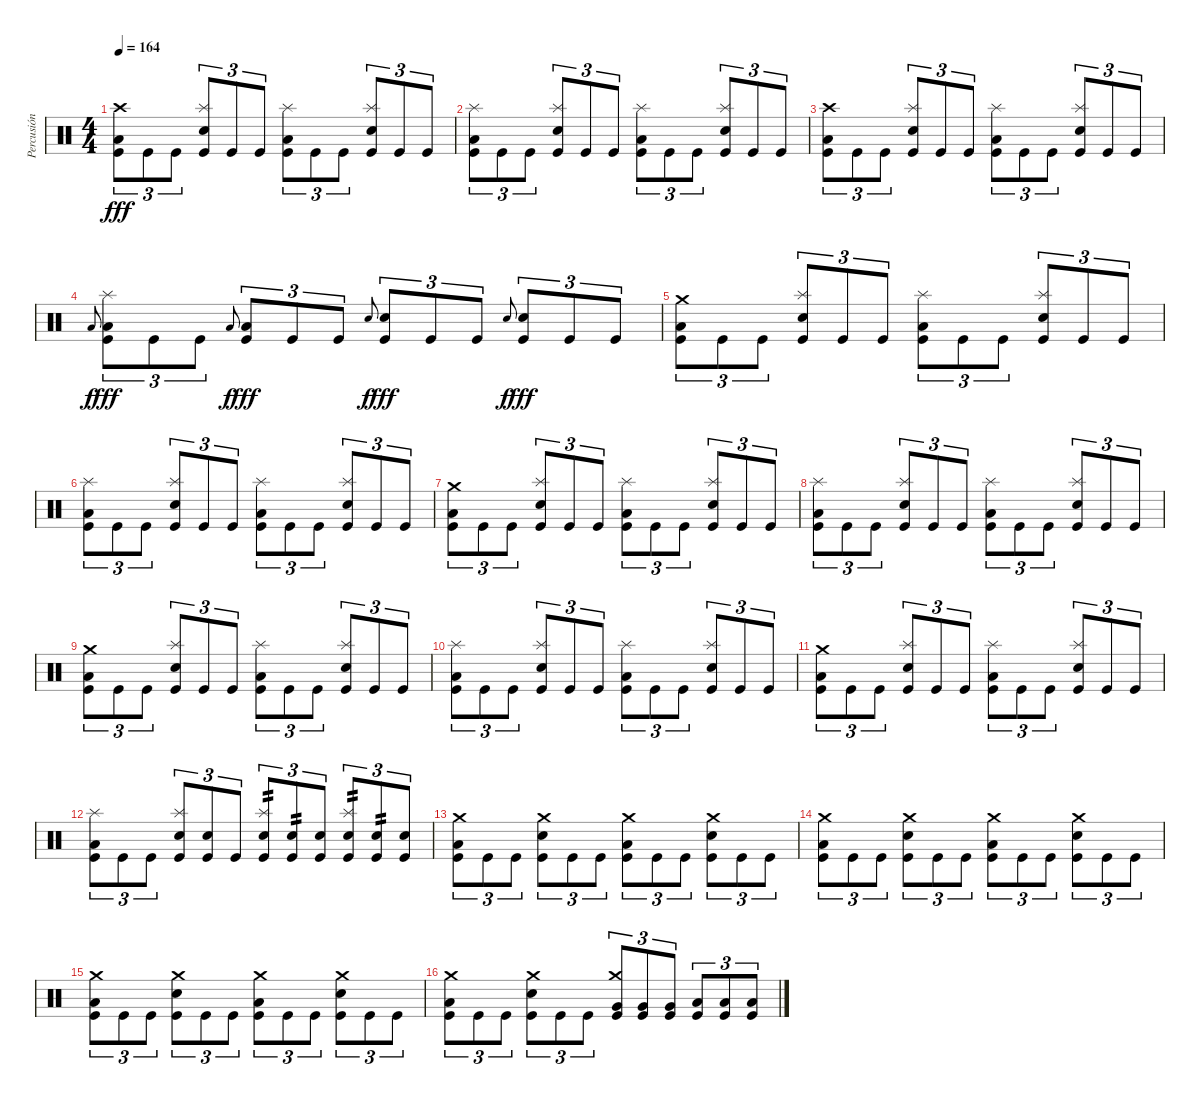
\track ("Percusión" "Percusión") {instrument percussion}
\staff {score}
\articulation defaults
\ts (4 4)
\tempo 164
\clef neutral
\ks c
("Crash high (hit)" "Low Floor Tom (hit)" "Kick (hit)").8{tu (3 2) dy fff} "Kick (hit)".8{tu (3 2)} "Kick (hit)".8{tu (3 2)} ("Splash (hit)" "Snare (hit) 2" "Kick (hit)").8{tu (3 2)} "Kick (hit)".8{tu (3 2)} "Kick (hit)".8{tu (3 2)} ("Splash (hit)" "Low Floor Tom (hit)" "Kick (hit)").8{tu (3 2)} "Kick (hit)".8{tu (3 2)} "Kick (hit)".8{tu (3 2)} ("Splash (hit)" "Snare (hit) 2" "Kick (hit)").8{tu (3 2)} "Kick (hit)".8{tu (3 2)} "Kick (hit)".8{tu (3 2)} |
("Splash (hit)" "Low Floor Tom (hit)" "Kick (hit)").8{tu (3 2)} "Kick (hit)".8{tu (3 2)} "Kick (hit)".8{tu (3 2)} ("Splash (hit)" "Snare (hit) 2" "Kick (hit)").8{tu (3 2)} "Kick (hit)".8{tu (3 2)} "Kick (hit)".8{tu (3 2)} ("Splash (hit)" "Low Floor Tom (hit)" "Kick (hit)").8{tu (3 2)} "Kick (hit)".8{tu (3 2)} "Kick (hit)".8{tu (3 2)} ("Splash (hit)" "Snare (hit) 2" "Kick (hit)").8{tu (3 2)} "Kick (hit)".8{tu (3 2)} "Kick (hit)".8{tu (3 2)} |
("Crash high (hit)" "Low Floor Tom (hit)" "Kick (hit)").8{tu (3 2)} "Kick (hit)".8{tu (3 2)} "Kick (hit)".8{tu (3 2)} ("Splash (hit)" "Snare (hit) 2" "Kick (hit)").8{tu (3 2)} "Kick (hit)".8{tu (3 2)} "Kick (hit)".8{tu (3 2)} ("Splash (hit)" "Low Floor Tom (hit)" "Kick (hit)").8{tu (3 2)} "Kick (hit)".8{tu (3 2)} "Kick (hit)".8{tu (3 2)} ("Splash (hit)" "Snare (hit) 2" "Kick (hit)").8{tu (3 2)} "Kick (hit)".8{tu (3 2)} "Kick (hit)".8{tu (3 2)} |
"Low Floor Tom (hit)".8{gr onbeat dy f} ("Splash (hit)" "Low Floor Tom (hit)" "Kick (hit)").8{tu (3 2) dy fff} "Kick (hit)".8{tu (3 2)} "Kick (hit)".8{tu (3 2)} "Low Floor Tom (hit)".8{gr onbeat dy f} ("Low Floor Tom (hit)" "Kick (hit)").8{tu (3 2) dy fff} "Kick (hit)".8{tu (3 2)} "Kick (hit)".8{tu (3 2)} "Snare (hit) 2".8{gr onbeat dy f} ("Snare (hit) 2" "Kick (hit)").8{tu (3 2) dy fff} "Kick (hit)".8{tu (3 2)} "Kick (hit)".8{tu (3 2)} "Snare (hit) 2".8{gr onbeat dy f} ("Snare (hit) 2" "Kick (hit)").8{tu (3 2) dy fff} "Kick (hit)".8{tu (3 2)} "Kick (hit)".8{tu (3 2)} |
("Crash medium (hit)" "Low Floor Tom (hit)" "Kick (hit)").8{tu (3 2)} "Kick (hit)".8{tu (3 2)} "Kick (hit)".8{tu (3 2)} ("Splash (hit)" "Snare (hit) 2" "Kick (hit)").8{tu (3 2)} "Kick (hit)".8{tu (3 2)} "Kick (hit)".8{tu (3 2)} ("Splash (hit)" "Low Floor Tom (hit)" "Kick (hit)").8{tu (3 2)} "Kick (hit)".8{tu (3 2)} "Kick (hit)".8{tu (3 2)} ("Splash (hit)" "Snare (hit) 2" "Kick (hit)").8{tu (3 2)} "Kick (hit)".8{tu (3 2)} "Kick (hit)".8{tu (3 2)} |
("Splash (hit)" "Low Floor Tom (hit)" "Kick (hit)").8{tu (3 2)} "Kick (hit)".8{tu (3 2)} "Kick (hit)".8{tu (3 2)} ("Splash (hit)" "Snare (hit) 2" "Kick (hit)").8{tu (3 2)} "Kick (hit)".8{tu (3 2)} "Kick (hit)".8{tu (3 2)} ("Splash (hit)" "Low Floor Tom (hit)" "Kick (hit)").8{tu (3 2)} "Kick (hit)".8{tu (3 2)} "Kick (hit)".8{tu (3 2)} ("Splash (hit)" "Snare (hit) 2" "Kick (hit)").8{tu (3 2)} "Kick (hit)".8{tu (3 2)} "Kick (hit)".8{tu (3 2)} |
("Crash medium (hit)" "Low Floor Tom (hit)" "Kick (hit)").8{tu (3 2)} "Kick (hit)".8{tu (3 2)} "Kick (hit)".8{tu (3 2)} ("Splash (hit)" "Snare (hit) 2" "Kick (hit)").8{tu (3 2)} "Kick (hit)".8{tu (3 2)} "Kick (hit)".8{tu (3 2)} ("Splash (hit)" "Low Floor Tom (hit)" "Kick (hit)").8{tu (3 2)} "Kick (hit)".8{tu (3 2)} "Kick (hit)".8{tu (3 2)} ("Splash (hit)" "Snare (hit) 2" "Kick (hit)").8{tu (3 2)} "Kick (hit)".8{tu (3 2)} "Kick (hit)".8{tu (3 2)} |
("Splash (hit)" "Low Floor Tom (hit)" "Kick (hit)").8{tu (3 2)} "Kick (hit)".8{tu (3 2)} "Kick (hit)".8{tu (3 2)} ("Splash (hit)" "Snare (hit) 2" "Kick (hit)").8{tu (3 2)} "Kick (hit)".8{tu (3 2)} "Kick (hit)".8{tu (3 2)} ("Splash (hit)" "Low Floor Tom (hit)" "Kick (hit)").8{tu (3 2)} "Kick (hit)".8{tu (3 2)} "Kick (hit)".8{tu (3 2)} ("Splash (hit)" "Snare (hit) 2" "Kick (hit)").8{tu (3 2)} "Kick (hit)".8{tu (3 2)} "Kick (hit)".8{tu (3 2)} |
("Crash medium (hit)" "Low Floor Tom (hit)" "Kick (hit)").8{tu (3 2)} "Kick (hit)".8{tu (3 2)} "Kick (hit)".8{tu (3 2)} ("Splash (hit)" "Snare (hit) 2" "Kick (hit)").8{tu (3 2)} "Kick (hit)".8{tu (3 2)} "Kick (hit)".8{tu (3 2)} ("Splash (hit)" "Low Floor Tom (hit)" "Kick (hit)").8{tu (3 2)} "Kick (hit)".8{tu (3 2)} "Kick (hit)".8{tu (3 2)} ("Splash (hit)" "Snare (hit) 2" "Kick (hit)").8{tu (3 2)} "Kick (hit)".8{tu (3 2)} "Kick (hit)".8{tu (3 2)} |
("Splash (hit)" "Low Floor Tom (hit)" "Kick (hit)").8{tu (3 2)} "Kick (hit)".8{tu (3 2)} "Kick (hit)".8{tu (3 2)} ("Splash (hit)" "Snare (hit) 2" "Kick (hit)").8{tu (3 2)} "Kick (hit)".8{tu (3 2)} "Kick (hit)".8{tu (3 2)} ("Splash (hit)" "Low Floor Tom (hit)" "Kick (hit)").8{tu (3 2)} "Kick (hit)".8{tu (3 2)} "Kick (hit)".8{tu (3 2)} ("Splash (hit)" "Snare (hit) 2" "Kick (hit)").8{tu (3 2)} "Kick (hit)".8{tu (3 2)} "Kick (hit)".8{tu (3 2)} |
("Crash medium (hit)" "Low Floor Tom (hit)" "Kick (hit)").8{tu (3 2)} "Kick (hit)".8{tu (3 2)} "Kick (hit)".8{tu (3 2)} ("Splash (hit)" "Snare (hit) 2" "Kick (hit)").8{tu (3 2)} "Kick (hit)".8{tu (3 2)} "Kick (hit)".8{tu (3 2)} ("Splash (hit)" "Low Floor Tom (hit)" "Kick (hit)").8{tu (3 2)} "Kick (hit)".8{tu (3 2)} "Kick (hit)".8{tu (3 2)} ("Splash (hit)" "Snare (hit) 2" "Kick (hit)").8{tu (3 2)} "Kick (hit)".8{tu (3 2)} "Kick (hit)".8{tu (3 2)} |
("Splash (hit)" "Low Floor Tom (hit)" "Kick (hit)").8{tu (3 2)} "Kick (hit)".8{tu (3 2)} "Kick (hit)".8{tu (3 2)} ("Splash (hit)" "Snare (hit) 2" "Kick (hit)").8{tu (3 2)} ("Snare (hit) 2" "Kick (hit)").8{tu (3 2)} "Kick (hit)".8{tu (3 2)} ("Splash (hit)" "Snare (hit) 2" "Kick (hit)").8{tu (3 2) tp 2} ("Snare (hit) 2" "Kick (hit)").8{tu (3 2) tp 2} ("Snare (hit) 2" "Kick (hit)").8{tu (3 2)} ("Splash (hit)" "Snare (hit) 2" "Kick (hit)").8{tu (3 2) tp 2} ("Snare (hit) 2" "Kick (hit)").8{tu (3 2) tp 2} ("Snare (hit) 2" "Kick (hit)").8{tu (3 2)} |
("Crash medium (hit)" "Low Floor Tom (hit)" "Kick (hit)").8{tu (3 2)} "Kick (hit)".8{tu (3 2)} "Kick (hit)".8{tu (3 2)} ("Crash medium (hit)" "Snare (hit) 2" "Kick (hit)").8{tu (3 2)} "Kick (hit)".8{tu (3 2)} "Kick (hit)".8{tu (3 2)} ("Crash medium (hit)" "Low Floor Tom (hit)" "Kick (hit)").8{tu (3 2)} "Kick (hit)".8{tu (3 2)} "Kick (hit)".8{tu (3 2)} ("Crash medium (hit)" "Snare (hit) 2" "Kick (hit)").8{tu (3 2)} "Kick (hit)".8{tu (3 2)} "Kick (hit)".8{tu (3 2)} |
("Crash medium (hit)" "Low Floor Tom (hit)" "Kick (hit)").8{tu (3 2)} "Kick (hit)".8{tu (3 2)} "Kick (hit)".8{tu (3 2)} ("Crash medium (hit)" "Snare (hit) 2" "Kick (hit)").8{tu (3 2)} "Kick (hit)".8{tu (3 2)} "Kick (hit)".8{tu (3 2)} ("Crash medium (hit)" "Low Floor Tom (hit)" "Kick (hit)").8{tu (3 2)} "Kick (hit)".8{tu (3 2)} "Kick (hit)".8{tu (3 2)} ("Crash medium (hit)" "Snare (hit) 2" "Kick (hit)").8{tu (3 2)} "Kick (hit)".8{tu (3 2)} "Kick (hit)".8{tu (3 2)} |
("Crash medium (hit)" "Low Floor Tom (hit)" "Kick (hit)").8{tu (3 2)} "Kick (hit)".8{tu (3 2)} "Kick (hit)".8{tu (3 2)} ("Crash medium (hit)" "Snare (hit) 2" "Kick (hit)").8{tu (3 2)} "Kick (hit)".8{tu (3 2)} "Kick (hit)".8{tu (3 2)} ("Crash medium (hit)" "Low Floor Tom (hit)" "Kick (hit)").8{tu (3 2)} "Kick (hit)".8{tu (3 2)} "Kick (hit)".8{tu (3 2)} ("Crash medium (hit)" "Snare (hit) 2" "Kick (hit)").8{tu (3 2)} "Kick (hit)".8{tu (3 2)} "Kick (hit)".8{tu (3 2)} |
("Crash medium (hit)" "Low Floor Tom (hit)" "Kick (hit)").8{tu (3 2)} "Kick (hit)".8{tu (3 2)} "Kick (hit)".8{tu (3 2)} ("Crash medium (hit)" "Snare (hit) 2" "Kick (hit)").8{tu (3 2)} "Kick (hit)".8{tu (3 2)} "Kick (hit)".8{tu (3 2)} ("Crash medium (hit)" "Very Low Tom (hit)" "Kick (hit)").8{tu (3 2)} ("Very Low Tom (hit)" "Kick (hit)").8{tu (3 2)} ("Very Low Tom (hit)" "Kick (hit)").8{tu (3 2)} ("Low Floor Tom (hit)" "Kick (hit)").8{tu (3 2)} ("Low Floor Tom (hit)" "Kick (hit)").8{tu (3 2)} ("Low Floor Tom (hit)" "Kick (hit)").8{tu (3 2)}
